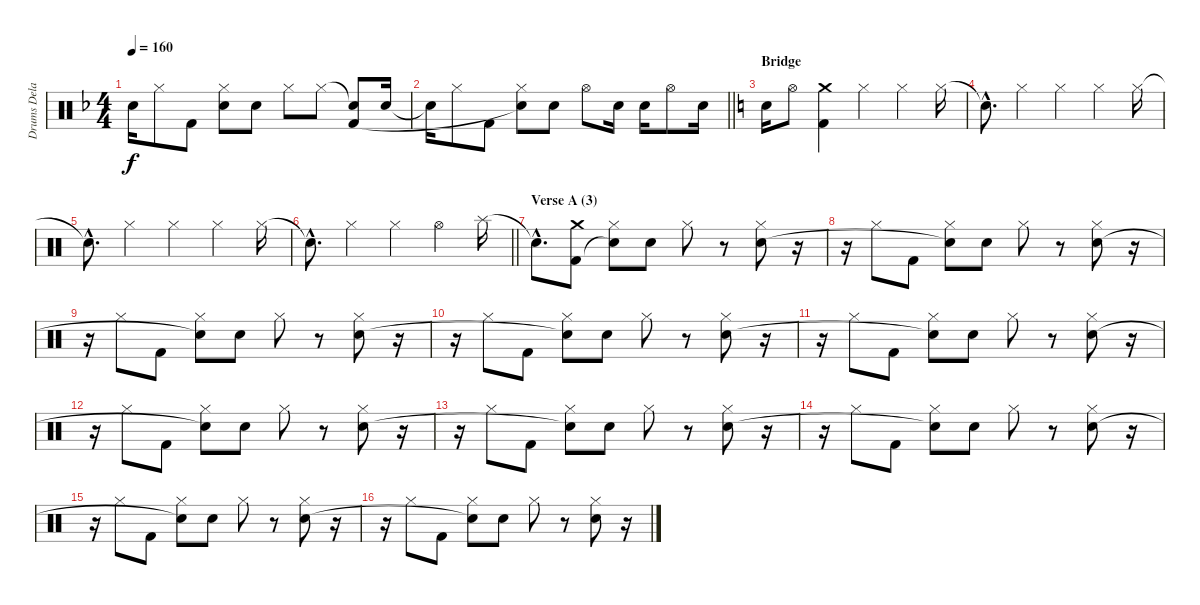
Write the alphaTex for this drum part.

\track ("Drums Delay 2" "Drums Dela") {instrument percussion}
\staff {score}
\articulation defaults
\ts (4 4)
\tempo 160
\clef neutral
\ks f "Snare (hit)"{t}.16{dy f} "Hi-Hat (closed)".8 "Kick (hit) 2".8
("Hi-Hat (closed)" "Snare (hit)"{t}).8 "Electric Snare (hit)".8 "Hi-Hat (closed)".8 "Hi-Hat (closed)".8 ("Snare (hit)"{t} "Kick (hit) 2").8 "Electric Snare (hit)".16 |
\barLineRight lightlight "Snare (hit)"{t}.16 "Hi-Hat (closed)".8 "Kick (hit) 2".8
("Hi-Hat (closed)" "Snare (hit)"{t}).8 "Electric Snare (hit)".8 "Hi-Hat (open)".8 "Electric Snare (hit)".16 "Electric Snare (hit)".16 "Hi-Hat (open)".8 "Electric Snare (hit)".16 |
\section ("" "Bridge")
\ks c "Electric Snare (hit)".16 "Hi-Hat (open)".8
("Crash medium (hit)" "Kick (hit) 2").4 "Hi-Hat (closed)".4 "Hi-Hat (closed)".4 "Hi-Hat (closed)".16 |
"Snare (hit)"{hac t}.8{d} "Hi-Hat (closed)".4 "Hi-Hat (closed)".4 "Hi-Hat (closed)".4 "Hi-Hat (closed)".16 |
"Snare (hit)"{hac t}.8{d} "Hi-Hat (closed)".4 "Hi-Hat (closed)".4 "Hi-Hat (closed)".4 "Hi-Hat (closed)".16 |
\barLineRight lightlight "Snare (hit)"{hac t}.8{d} "Hi-Hat (closed)".4 "Hi-Hat (closed)".4 "Hi-Hat (open)".4 "Splash (hit)".16
|
\section ("" "Verse A (3)")
"Snare (hit)"{hac t}.8{d} ("Crash medium (hit)" "Kick (hit) 2").8 ("Hi-Hat (closed)" "Snare (hit)"{t}).8 "Electric Snare (hit)".8 "Hi-Hat (closed)".8 r.8 ("Hi-Hat (closed)" "Electric Snare (hit)").8 r.16 |
r.16 "Hi-Hat (closed)".8 "Kick (hit) 2".8 ("Hi-Hat (closed)" "Snare (hit)"{t}).8 "Electric Snare (hit)".8 "Hi-Hat (closed)".8 r.8 ("Hi-Hat (closed)" "Electric Snare (hit)").8 r.16 |
r.16 "Hi-Hat (closed)".8 "Kick (hit) 2".8 ("Hi-Hat (closed)" "Snare (hit)"{t}).8 "Electric Snare (hit)".8 "Hi-Hat (closed)".8 r.8 ("Hi-Hat (closed)" "Electric Snare (hit)").8 r.16 |
r.16 "Hi-Hat (closed)".8 "Kick (hit) 2".8 ("Hi-Hat (closed)" "Snare (hit)"{t}).8 "Electric Snare (hit)".8 "Hi-Hat (closed)".8 r.8 ("Hi-Hat (closed)" "Electric Snare (hit)").8 r.16 |
r.16 "Hi-Hat (closed)".8 "Kick (hit) 2".8 ("Hi-Hat (closed)" "Snare (hit)"{t}).8 "Electric Snare (hit)".8 "Hi-Hat (closed)".8 r.8 ("Hi-Hat (closed)" "Electric Snare (hit)").8 r.16 |
r.16 "Hi-Hat (closed)".8 "Kick (hit) 2".8 ("Hi-Hat (closed)" "Snare (hit)"{t}).8 "Electric Snare (hit)".8 "Hi-Hat (closed)".8 r.8 ("Hi-Hat (closed)" "Electric Snare (hit)").8 r.16 |
r.16 "Hi-Hat (closed)".8 "Kick (hit) 2".8 ("Hi-Hat (closed)" "Snare (hit)"{t}).8 "Electric Snare (hit)".8 "Hi-Hat (closed)".8 r.8 ("Hi-Hat (closed)" "Electric Snare (hit)").8 r.16 |
r.16 "Hi-Hat (closed)".8 "Kick (hit) 2".8 ("Hi-Hat (closed)" "Snare (hit)"{t}).8 "Electric Snare (hit)".8 "Hi-Hat (closed)".8 r.8 ("Hi-Hat (closed)" "Electric Snare (hit)").8 r.16 |
r.16 "Hi-Hat (closed)".8 "Kick (hit) 2".8 ("Hi-Hat (closed)" "Snare (hit)"{t}).8 "Electric Snare (hit)".8 "Hi-Hat (closed)".8 r.8 ("Hi-Hat (closed)" "Electric Snare (hit)").8 r.16 |
r.16 "Hi-Hat (closed)".8 "Kick (hit) 2".8 ("Hi-Hat (closed)" "Snare (hit)"{t}).8 "Electric Snare (hit)".8 "Hi-Hat (closed)".8 r.8 ("Hi-Hat (closed)" "Electric Snare (hit)").8 r.16
